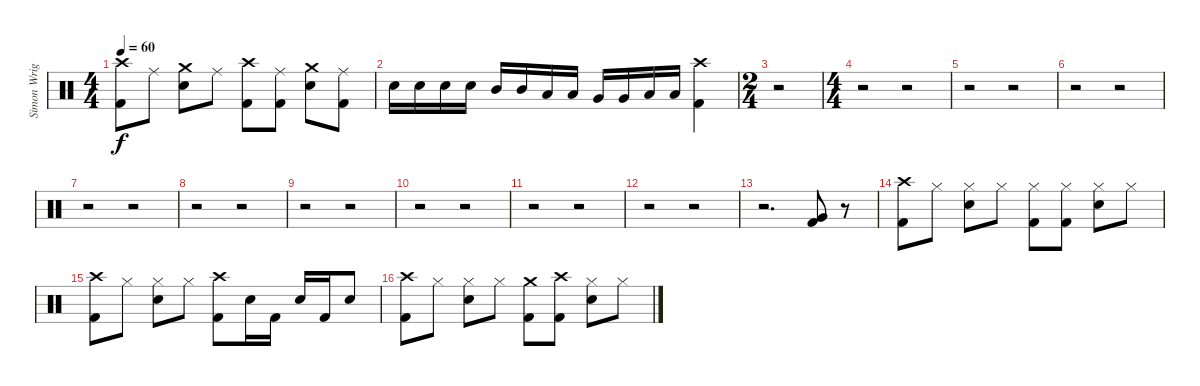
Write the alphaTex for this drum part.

\track ("Simon Wright" "Simon Wrig") {instrument percussion}
\staff {score}
\articulation defaults
\ts (4 4)
\tempo 60
\clef neutral
\ks c
("Crash high (hit)" "Kick (hit) 2").8{dy f} "Ride (middle)".8 ("Crash medium (hit)" "Snare (hit) 2").8 "Ride (middle)".8 ("Crash high (hit)" "Kick (hit) 2").8 ("Ride (middle)" "Kick (hit) 2").8 ("Crash medium (hit)" "Snare (hit) 2").8 ("Ride (middle)" "Kick (hit) 2").8 |
"Snare (hit) 2".16 "Snare (hit) 2".16 "Snare (hit) 2".16 "Snare (hit) 2".16 "Mid Tom (hit)".16 "Mid Tom (hit)".16 "Low Tom (hit)".16 "Low Tom (hit)".16 "Very Low Tom (hit)".16 "Very Low Tom (hit)".16 "Low Floor Tom (hit)".16 "Low Floor Tom (hit)".16 ("Crash high (hit)" "Kick (hit) 2").4 |
\ts (2 4)
r.2 |
\ts (4 4)
r.2 r.2 |
r.2 r.2 |
r.2 r.2 |
r.2 r.2 |
r.2 r.2 |
r.2 r.2 |
r.2 r.2 |
r.2 r.2 |
r.2 r.2 |
r.2{d} ("Very Low Tom (hit)" "Kick (hit) 2").8 r.8 |
("Crash high (hit)" "Kick (hit) 2").8 "Hi-Hat (closed)".8 ("Hi-Hat (closed)" "Snare (hit) 2").8 "Hi-Hat (closed)".8 ("Hi-Hat (closed)" "Kick (hit) 2").8 ("Hi-Hat (closed)" "Kick (hit) 2").8 ("Hi-Hat (closed)" "Snare (hit) 2").8 "Hi-Hat (closed)".8 |
("Crash high (hit)" "Kick (hit) 2").8 "Hi-Hat (closed)".8 ("Hi-Hat (closed)" "Snare (hit) 2").8 "Hi-Hat (closed)".8 ("Crash high (hit)" "Kick (hit) 2").8 "Snare (hit) 2".16 "Kick (hit) 2".16 "Snare (hit) 2".16 "Kick (hit) 2".16 "Snare (hit) 2".8 |
("Crash high (hit)" "Kick (hit) 2").8 "Hi-Hat (closed)".8 ("Hi-Hat (closed)" "Snare (hit) 2").8 "Hi-Hat (closed)".8 ("Crash medium (hit)" "Kick (hit) 2").8 ("Crash high (hit)" "Kick (hit) 2").8 ("Hi-Hat (closed)" "Snare (hit) 2").8 "Hi-Hat (closed)".8
